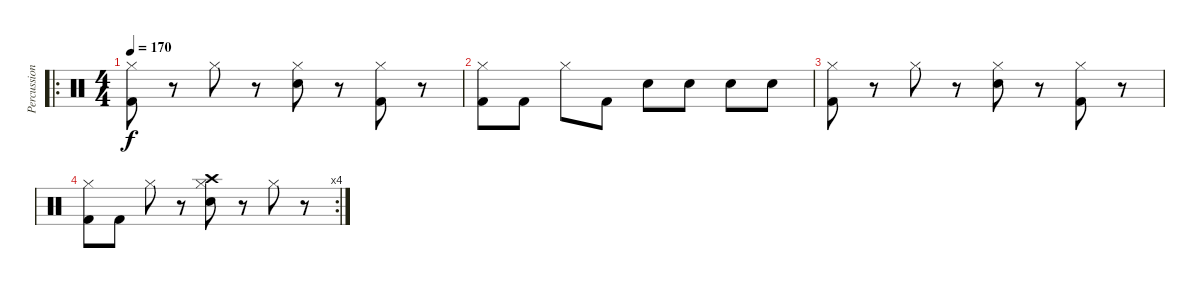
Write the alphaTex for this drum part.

\track ("Percussions" "Percussion") {instrument percussion}
\staff {score}
\articulation defaults
\ro
\ts (4 4)
\tempo 170
\clef neutral
\ks c
("Kick (hit) 2" "Hi-Hat (closed)").8{dy f} r.8 "Hi-Hat (closed)".8 r.8 ("Electric Snare (hit)" "Hi-Hat (closed)").8 r.8 ("Kick (hit) 2" "Hi-Hat (closed)").8 r.8 |
("Kick (hit) 2" "Hi-Hat (closed)").8 "Kick (hit) 2".8 "Hi-Hat (closed)".8 "Kick (hit) 2".8 "Electric Snare (hit)".8 "Electric Snare (hit)".8 "Electric Snare (hit)".8 "Electric Snare (hit)".8 |
("Kick (hit) 2" "Hi-Hat (closed)").8 r.8 "Hi-Hat (closed)".8 r.8 ("Electric Snare (hit)" "Hi-Hat (closed)").8 r.8 ("Kick (hit) 2" "Hi-Hat (closed)").8 r.8 |
\rc 4
("Kick (hit) 2" "Hi-Hat (closed)").8 "Kick (hit) 2".8 "Hi-Hat (closed)".8 r.8 ("Crash high (hit)" "Electric Snare (hit)" "Hi-Hat (closed)").8 r.8 "Hi-Hat (closed)".8 r.8
